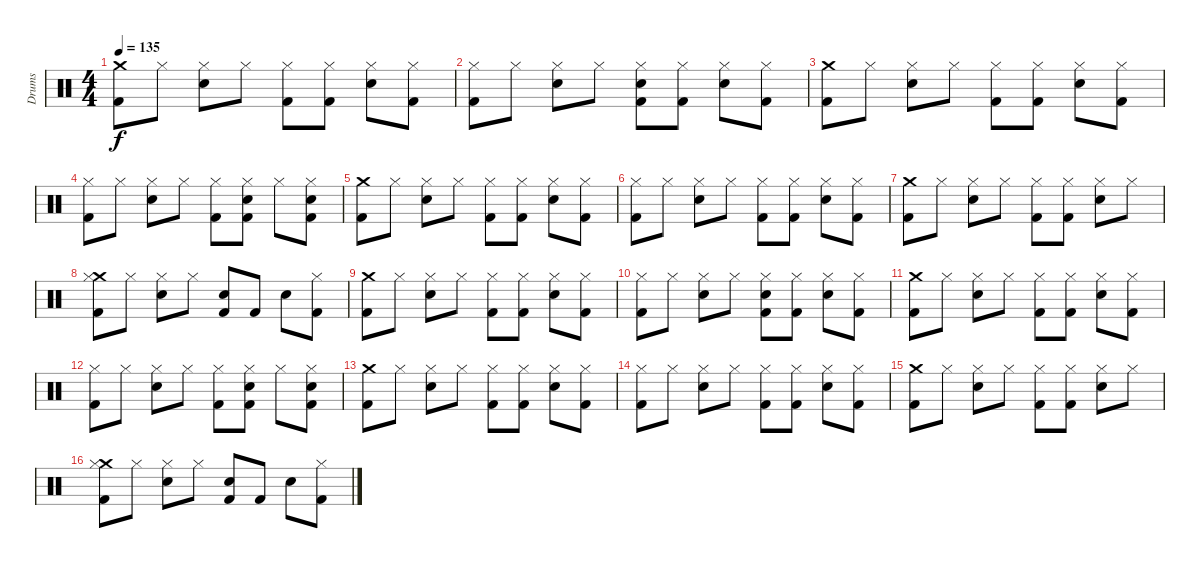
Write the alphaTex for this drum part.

\track ("Drums" "Drums") {instrument percussion}
\staff {score}
\articulation defaults
\ts (4 4)
\tempo 135
\clef neutral
\ks c
("Crash medium (hit)" "Kick (hit) 2").8{dy f} "Hi-Hat (closed)".8 ("Hi-Hat (closed)" "Snare (hit) 2").8 "Hi-Hat (closed)".8 ("Hi-Hat (closed)" "Kick (hit) 2").8 ("Hi-Hat (closed)" "Kick (hit) 2").8 ("Hi-Hat (closed)" "Snare (hit) 2").8 ("Hi-Hat (closed)" "Kick (hit) 2").8 |
("Hi-Hat (closed)" "Kick (hit) 2").8 "Hi-Hat (closed)".8 ("Hi-Hat (closed)" "Snare (hit) 2").8 "Hi-Hat (closed)".8 ("Hi-Hat (closed)" "Snare (hit) 2" "Kick (hit) 2").8 ("Hi-Hat (closed)" "Kick (hit) 2").8 ("Hi-Hat (closed)" "Snare (hit) 2").8 ("Hi-Hat (closed)" "Kick (hit) 2").8 |
("Crash medium (hit)" "Kick (hit) 2").8 "Hi-Hat (closed)".8 ("Hi-Hat (closed)" "Snare (hit) 2").8 "Hi-Hat (closed)".8 ("Hi-Hat (closed)" "Kick (hit) 2").8 ("Hi-Hat (closed)" "Kick (hit) 2").8 ("Hi-Hat (closed)" "Snare (hit) 2").8 ("Hi-Hat (closed)" "Kick (hit) 2").8 |
("Hi-Hat (closed)" "Kick (hit) 2").8 "Hi-Hat (closed)".8 ("Hi-Hat (closed)" "Snare (hit) 2").8 "Hi-Hat (closed)".8 ("Hi-Hat (closed)" "Kick (hit) 2").8 ("Hi-Hat (closed)" "Snare (hit) 2" "Kick (hit) 2").8 "Hi-Hat (closed)".8 ("Hi-Hat (closed)" "Snare (hit) 2" "Kick (hit) 2").8 |
("Crash medium (hit)" "Kick (hit) 2").8 "Hi-Hat (closed)".8 ("Hi-Hat (closed)" "Snare (hit) 2").8 "Hi-Hat (closed)".8 ("Hi-Hat (closed)" "Kick (hit) 2").8 ("Hi-Hat (closed)" "Kick (hit) 2").8 ("Hi-Hat (closed)" "Snare (hit) 2").8 ("Hi-Hat (closed)" "Kick (hit) 2").8 |
("Hi-Hat (closed)" "Kick (hit) 2").8 "Hi-Hat (closed)".8 ("Hi-Hat (closed)" "Snare (hit) 2").8 "Hi-Hat (closed)".8 ("Hi-Hat (closed)" "Kick (hit) 2").8 ("Hi-Hat (closed)" "Kick (hit) 2").8 ("Hi-Hat (closed)" "Snare (hit) 2").8 ("Hi-Hat (closed)" "Kick (hit) 2").8 |
("Crash medium (hit)" "Kick (hit) 2").8 "Hi-Hat (closed)".8 ("Hi-Hat (closed)" "Snare (hit) 2").8 "Hi-Hat (closed)".8 ("Hi-Hat (closed)" "Kick (hit) 2").8 ("Hi-Hat (closed)" "Kick (hit) 2").8 ("Hi-Hat (closed)" "Snare (hit) 2").8 "Hi-Hat (closed)".8 |
("Crash medium (hit)" "Hi-Hat (closed)" "Kick (hit) 2").8 "Hi-Hat (closed)".8 ("Hi-Hat (closed)" "Snare (hit) 2").8 "Hi-Hat (closed)".8 ("Snare (hit) 2" "Kick (hit) 2").8 "Kick (hit) 2".8 "Snare (hit) 2".8 ("Hi-Hat (closed)" "Kick (hit) 2").8 |
("Crash medium (hit)" "Kick (hit) 2").8 "Hi-Hat (closed)".8 ("Hi-Hat (closed)" "Snare (hit) 2").8 "Hi-Hat (closed)".8 ("Hi-Hat (closed)" "Kick (hit) 2").8 ("Hi-Hat (closed)" "Kick (hit) 2").8 ("Hi-Hat (closed)" "Snare (hit) 2").8 ("Hi-Hat (closed)" "Kick (hit) 2").8 |
("Hi-Hat (closed)" "Kick (hit) 2").8 "Hi-Hat (closed)".8 ("Hi-Hat (closed)" "Snare (hit) 2").8 "Hi-Hat (closed)".8 ("Hi-Hat (closed)" "Snare (hit) 2" "Kick (hit) 2").8 ("Hi-Hat (closed)" "Kick (hit) 2").8 ("Hi-Hat (closed)" "Snare (hit) 2").8 ("Hi-Hat (closed)" "Kick (hit) 2").8 |
("Crash medium (hit)" "Kick (hit) 2").8 "Hi-Hat (closed)".8 ("Hi-Hat (closed)" "Snare (hit) 2").8 "Hi-Hat (closed)".8 ("Hi-Hat (closed)" "Kick (hit) 2").8 ("Hi-Hat (closed)" "Kick (hit) 2").8 ("Hi-Hat (closed)" "Snare (hit) 2").8 ("Hi-Hat (closed)" "Kick (hit) 2").8 |
("Hi-Hat (closed)" "Kick (hit) 2").8 "Hi-Hat (closed)".8 ("Hi-Hat (closed)" "Snare (hit) 2").8 "Hi-Hat (closed)".8 ("Hi-Hat (closed)" "Kick (hit) 2").8 ("Hi-Hat (closed)" "Snare (hit) 2" "Kick (hit) 2").8 "Hi-Hat (closed)".8 ("Hi-Hat (closed)" "Snare (hit) 2" "Kick (hit) 2").8 |
("Crash medium (hit)" "Kick (hit) 2").8 "Hi-Hat (closed)".8 ("Hi-Hat (closed)" "Snare (hit) 2").8 "Hi-Hat (closed)".8 ("Hi-Hat (closed)" "Kick (hit) 2").8 ("Hi-Hat (closed)" "Kick (hit) 2").8 ("Hi-Hat (closed)" "Snare (hit) 2").8 ("Hi-Hat (closed)" "Kick (hit) 2").8 |
("Hi-Hat (closed)" "Kick (hit) 2").8 "Hi-Hat (closed)".8 ("Hi-Hat (closed)" "Snare (hit) 2").8 "Hi-Hat (closed)".8 ("Hi-Hat (closed)" "Kick (hit) 2").8 ("Hi-Hat (closed)" "Kick (hit) 2").8 ("Hi-Hat (closed)" "Snare (hit) 2").8 ("Hi-Hat (closed)" "Kick (hit) 2").8 |
("Crash medium (hit)" "Kick (hit) 2").8 "Hi-Hat (closed)".8 ("Hi-Hat (closed)" "Snare (hit) 2").8 "Hi-Hat (closed)".8 ("Hi-Hat (closed)" "Kick (hit) 2").8 ("Hi-Hat (closed)" "Kick (hit) 2").8 ("Hi-Hat (closed)" "Snare (hit) 2").8 "Hi-Hat (closed)".8 |
("Crash medium (hit)" "Hi-Hat (closed)" "Kick (hit) 2").8 "Hi-Hat (closed)".8 ("Hi-Hat (closed)" "Snare (hit) 2").8 "Hi-Hat (closed)".8 ("Snare (hit) 2" "Kick (hit) 2").8 "Kick (hit) 2".8 "Snare (hit) 2".8 ("Hi-Hat (closed)" "Kick (hit) 2").8
